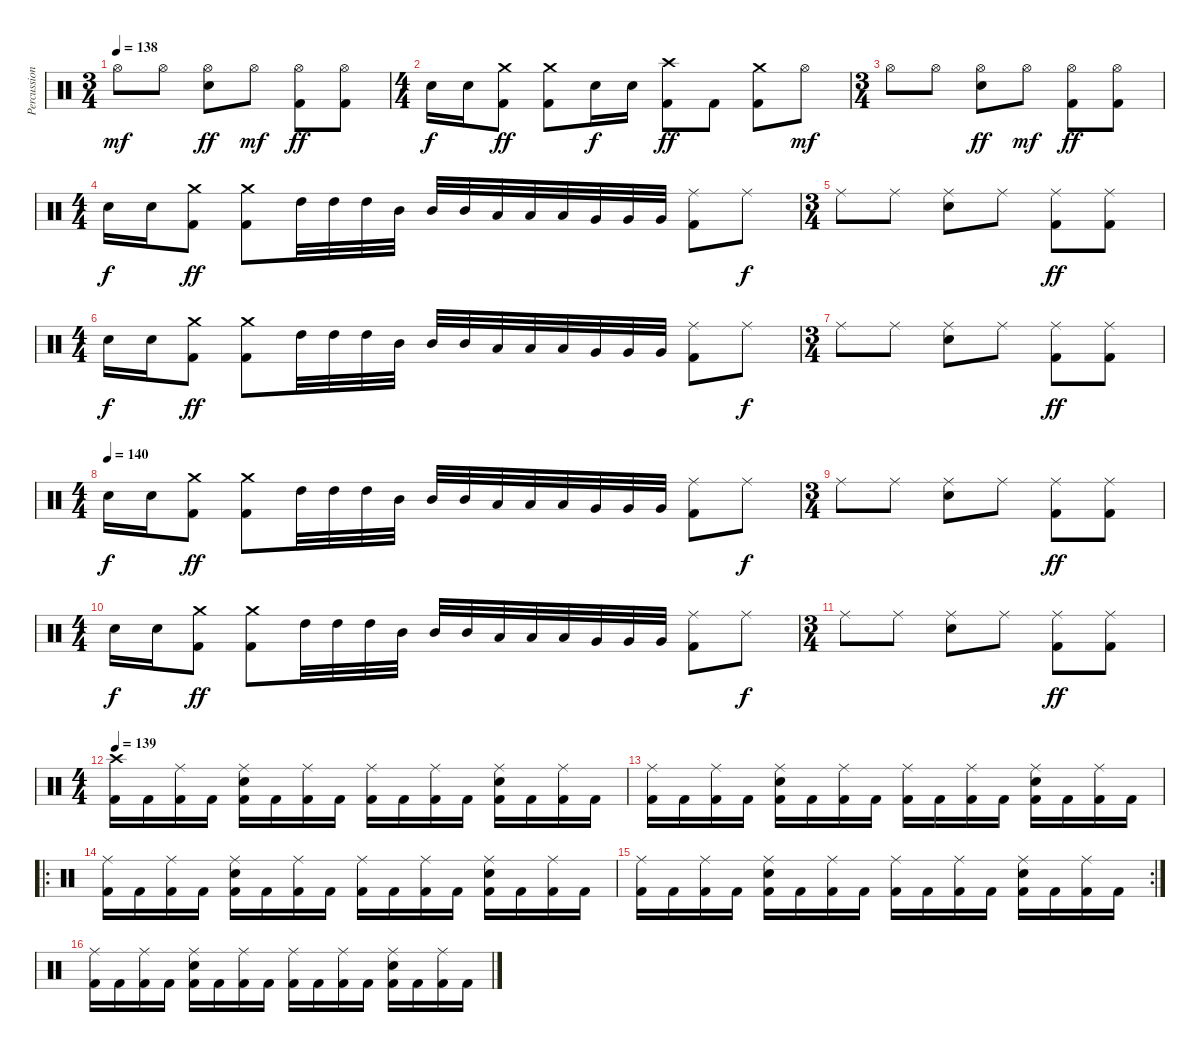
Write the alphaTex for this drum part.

\track ("Percussion" "Percussion") {instrument percussion}
\staff {score}
\articulation defaults
\ts (3 4)
\tempo 138
\clef neutral
\ks c "Hi-Hat (open)".8{dy mf} "Hi-Hat (open)".8
("Hi-Hat (open)" "Electric Snare (hit)").8{dy ff} "Hi-Hat (open)".8{dy mf} ("Hi-Hat (open)" "Kick (hit) 2").8{dy ff} ("Hi-Hat (open)" "Kick (hit) 2").8 |
\ts (4 4)
"Electric Snare (hit)".16{dy f} "Electric Snare (hit)".16 ("Crash medium (hit)" "Kick (hit) 2").8{dy ff} ("Crash medium (hit)" "Kick (hit) 2").8 "Electric Snare (hit)".16{dy f} "Electric Snare (hit)".16 ("Crash high (hit)" "Kick (hit) 2").8{dy ff} "Kick (hit) 2".8 ("Crash medium (hit)" "Kick (hit) 2").8 "Hi-Hat (open)".8{dy mf} |
\ts (3 4)
"Hi-Hat (open)".8 "Hi-Hat (open)".8 ("Hi-Hat (open)" "Electric Snare (hit)").8{dy ff} "Hi-Hat (open)".8{dy mf} ("Hi-Hat (open)" "Kick (hit) 2").8{dy ff} ("Hi-Hat (open)" "Kick (hit) 2").8 |
\ts (4 4)
"Electric Snare (hit)".16{dy f} "Electric Snare (hit)".16 ("Crash medium (hit)" "Kick (hit) 2").8{dy ff} ("Crash medium (hit)" "Kick (hit) 2").8 "High Tom (hit)".32 "High Tom (hit)".32 "High Tom (hit)".32 "Mid Tom (hit)".32 "Mid Tom (hit)".32 "Mid Tom (hit)".32 "Low Tom (hit)".32 "Low Tom (hit)".32 "Low Tom (hit)".32 "Very Low Tom (hit)".32 "Very Low Tom (hit)".32 "Very Low Tom (hit)".32 ("Ride (middle)" "Kick (hit) 2").8 "Ride (middle)".8{dy f} |
\ts (3 4)
"Ride (middle)".8 "Ride (middle)".8 ("Ride (middle)" "Electric Snare (hit)").8 "Ride (middle)".8 ("Ride (middle)" "Kick (hit) 2").8{dy ff} ("Ride (middle)" "Kick (hit) 2").8 |
\ts (4 4)
"Electric Snare (hit)".16{dy f} "Electric Snare (hit)".16 ("Crash medium (hit)" "Kick (hit) 2").8{dy ff} ("Crash medium (hit)" "Kick (hit) 2").8 "High Tom (hit)".32 "High Tom (hit)".32 "High Tom (hit)".32 "Mid Tom (hit)".32 "Mid Tom (hit)".32 "Mid Tom (hit)".32 "Low Tom (hit)".32 "Low Tom (hit)".32 "Low Tom (hit)".32 "Very Low Tom (hit)".32 "Very Low Tom (hit)".32 "Very Low Tom (hit)".32 ("Ride (middle)" "Kick (hit) 2").8 "Ride (middle)".8{dy f} |
\ts (3 4)
"Ride (middle)".8 "Ride (middle)".8 ("Ride (middle)" "Electric Snare (hit)").8 "Ride (middle)".8 ("Ride (middle)" "Kick (hit) 2").8{dy ff} ("Ride (middle)" "Kick (hit) 2").8 |
\ts (4 4)
\tempo (140)
"Electric Snare (hit)".16{dy f} "Electric Snare (hit)".16 ("Crash medium (hit)" "Kick (hit) 2").8{dy ff} ("Crash medium (hit)" "Kick (hit) 2").8 "High Tom (hit)".32 "High Tom (hit)".32 "High Tom (hit)".32 "Mid Tom (hit)".32 "Mid Tom (hit)".32 "Mid Tom (hit)".32 "Low Tom (hit)".32 "Low Tom (hit)".32 "Low Tom (hit)".32 "Very Low Tom (hit)".32 "Very Low Tom (hit)".32 "Very Low Tom (hit)".32 ("Ride (middle)" "Kick (hit) 2").8 "Ride (middle)".8{dy f} |
\ts (3 4)
"Ride (middle)".8 "Ride (middle)".8 ("Ride (middle)" "Electric Snare (hit)").8 "Ride (middle)".8 ("Ride (middle)" "Kick (hit) 2").8{dy ff} ("Ride (middle)" "Kick (hit) 2").8 |
\ts (4 4)
"Electric Snare (hit)".16{dy f} "Electric Snare (hit)".16 ("Crash medium (hit)" "Kick (hit) 2").8{dy ff} ("Crash medium (hit)" "Kick (hit) 2").8 "High Tom (hit)".32 "High Tom (hit)".32 "High Tom (hit)".32 "Mid Tom (hit)".32 "Mid Tom (hit)".32 "Mid Tom (hit)".32 "Low Tom (hit)".32 "Low Tom (hit)".32 "Low Tom (hit)".32 "Very Low Tom (hit)".32 "Very Low Tom (hit)".32 "Very Low Tom (hit)".32 ("Ride (middle)" "Kick (hit) 2").8 "Ride (middle)".8{dy f} |
\ts (3 4)
"Ride (middle)".8 "Ride (middle)".8 ("Ride (middle)" "Electric Snare (hit)").8 "Ride (middle)".8 ("Ride (middle)" "Kick (hit) 2").8{dy ff} ("Ride (middle)" "Kick (hit) 2").8 |
\ts (4 4)
\tempo 139
("Crash high (hit)" "Kick (hit) 2").16 "Kick (hit) 2".16 ("Ride (middle)" "Kick (hit) 2").16 "Kick (hit) 2".16 ("Ride (middle)" "Electric Snare (hit)" "Kick (hit) 2").16 "Kick (hit) 2".16 ("Ride (middle)" "Kick (hit) 2").16 "Kick (hit) 2".16 ("Ride (middle)" "Kick (hit) 2").16 "Kick (hit) 2".16 ("Ride (middle)" "Kick (hit) 2").16 "Kick (hit) 2".16 ("Ride (middle)" "Electric Snare (hit)" "Kick (hit) 2").16 "Kick (hit) 2".16 ("Ride (middle)" "Kick (hit) 2").16 "Kick (hit) 2".16 |
("Ride (middle)" "Kick (hit) 2").16 "Kick (hit) 2".16 ("Ride (middle)" "Kick (hit) 2").16 "Kick (hit) 2".16 ("Ride (middle)" "Electric Snare (hit)" "Kick (hit) 2").16 "Kick (hit) 2".16 ("Ride (middle)" "Kick (hit) 2").16 "Kick (hit) 2".16 ("Ride (middle)" "Kick (hit) 2").16 "Kick (hit) 2".16 ("Ride (middle)" "Kick (hit) 2").16 "Kick (hit) 2".16 ("Ride (middle)" "Electric Snare (hit)" "Kick (hit) 2").16 "Kick (hit) 2".16 ("Ride (middle)" "Kick (hit) 2").16 "Kick (hit) 2".16 |
\ro
("Ride (middle)" "Kick (hit) 2").16 "Kick (hit) 2".16 ("Ride (middle)" "Kick (hit) 2").16 "Kick (hit) 2".16 ("Ride (middle)" "Electric Snare (hit)" "Kick (hit) 2").16 "Kick (hit) 2".16 ("Ride (middle)" "Kick (hit) 2").16 "Kick (hit) 2".16 ("Ride (middle)" "Kick (hit) 2").16 "Kick (hit) 2".16 ("Ride (middle)" "Kick (hit) 2").16 "Kick (hit) 2".16 ("Ride (middle)" "Electric Snare (hit)" "Kick (hit) 2").16 "Kick (hit) 2".16 ("Ride (middle)" "Kick (hit) 2").16 "Kick (hit) 2".16 |
\rc 2
("Ride (middle)" "Kick (hit) 2").16 "Kick (hit) 2".16 ("Ride (middle)" "Kick (hit) 2").16 "Kick (hit) 2".16 ("Ride (middle)" "Electric Snare (hit)" "Kick (hit) 2").16 "Kick (hit) 2".16 ("Ride (middle)" "Kick (hit) 2").16 "Kick (hit) 2".16 ("Ride (middle)" "Kick (hit) 2").16 "Kick (hit) 2".16 ("Ride (middle)" "Kick (hit) 2").16 "Kick (hit) 2".16 ("Ride (middle)" "Electric Snare (hit)" "Kick (hit) 2").16 "Kick (hit) 2".16 ("Ride (middle)" "Kick (hit) 2").16 "Kick (hit) 2".16 |
("Ride (middle)" "Kick (hit) 2").16 "Kick (hit) 2".16 ("Ride (middle)" "Kick (hit) 2").16 "Kick (hit) 2".16 ("Ride (middle)" "Electric Snare (hit)" "Kick (hit) 2").16 "Kick (hit) 2".16 ("Ride (middle)" "Kick (hit) 2").16 "Kick (hit) 2".16 ("Ride (middle)" "Kick (hit) 2").16 "Kick (hit) 2".16 ("Ride (middle)" "Kick (hit) 2").16 "Kick (hit) 2".16 ("Ride (middle)" "Electric Snare (hit)" "Kick (hit) 2").16 "Kick (hit) 2".16 ("Ride (middle)" "Kick (hit) 2").16 "Kick (hit) 2".16
